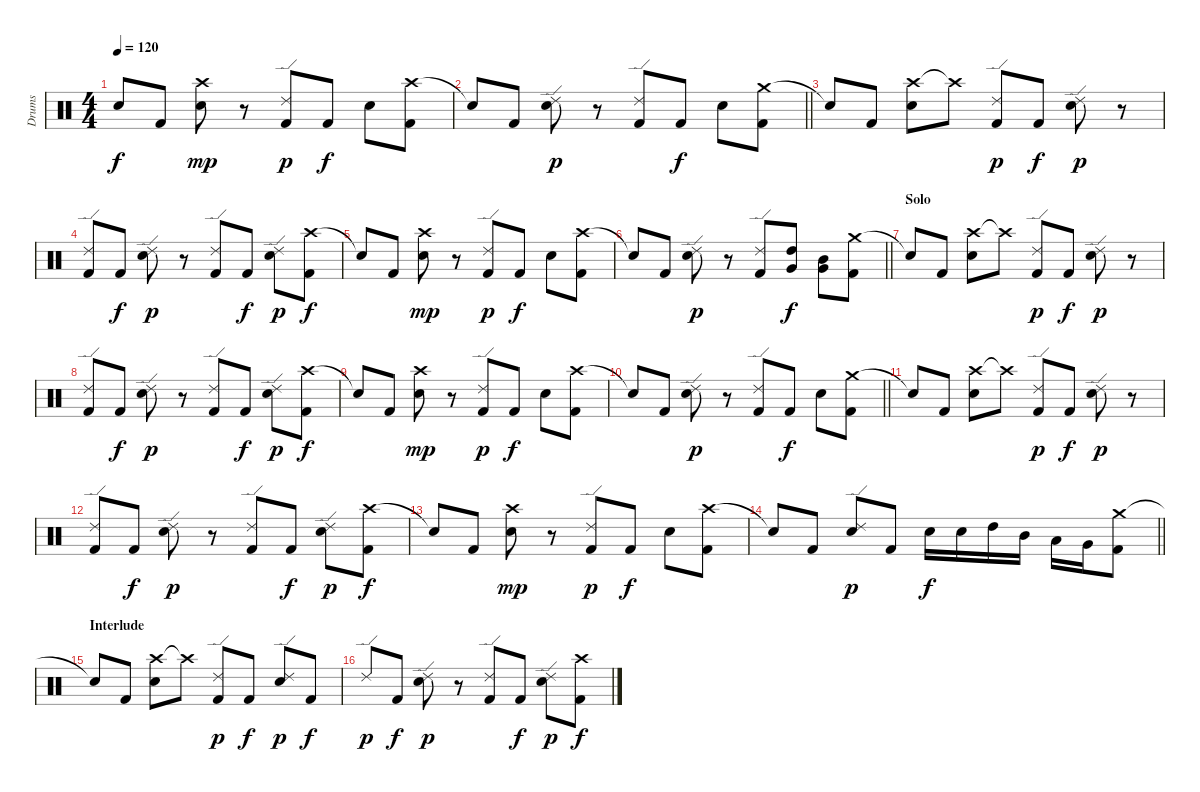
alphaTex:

\track ("Drums" "Drums") {instrument percussion}
\staff {score}
\articulation defaults
\ts (4 4)
\tempo 120
\clef neutral
\ks c "Snare (hit)"{t}.8{dy f} "Kick (hit) 2".8
("Crash high (hit)" "Electric Snare (hit)").8{dy mp} r.8 ("Ride (edge) 2" "Kick (hit) 2").8{dy p} "Kick (hit) 2".8{dy f} "Electric Snare (hit)".8 ("Crash high (hit)" "Kick (hit) 2").8 |
\barLineRight lightlight "Snare (hit)"{t}.8 "Kick (hit) 2".8
("Ride (edge) 2" "Electric Snare (hit)").8{dy p} r.8 ("Ride (edge) 2" "Kick (hit) 2").8 "Kick (hit) 2".8{dy f} "Electric Snare (hit)".8 ("Crash medium (hit)" "Kick (hit) 2").8 |
"Snare (hit)"{t}.8 "Kick (hit) 2".8 ("Crash high (hit)" "Electric Snare (hit)").8 "Crash high (hit)"{t}.8 ("Ride (edge) 2" "Kick (hit) 2").8{dy p} "Kick (hit) 2".8{dy f} ("Ride (edge) 2" "Electric Snare (hit)").8{dy p} r.8 |
("Ride (edge) 2" "Kick (hit) 2").8 "Kick (hit) 2".8{dy f} ("Ride (edge) 2" "Electric Snare (hit)").8{dy p} r.8 ("Ride (edge) 2" "Kick (hit) 2").8 "Kick (hit) 2".8{dy f} ("Ride (edge) 2" "Electric Snare (hit)").8{dy p} ("Crash high (hit)" "Kick (hit) 2").8{dy f} |
"Snare (hit)"{t}.8 "Kick (hit) 2".8 ("Crash high (hit)" "Electric Snare (hit)").8{dy mp} r.8 ("Ride (edge) 2" "Kick (hit) 2").8{dy p} "Kick (hit) 2".8{dy f} "Electric Snare (hit)".8 ("Crash high (hit)" "Kick (hit) 2").8 |
\barLineRight lightlight "Snare (hit)"{t}.8 "Kick (hit) 2".8
("Ride (edge) 2" "Electric Snare (hit)").8{dy p} r.8 ("Ride (edge) 2" "Kick (hit) 2").8 ("High Tom (hit)" "Very Low Tom (hit)").8{dy f} ("Mid Tom (hit)" "Very Low Tom (hit)").8 ("Crash medium (hit)" "Kick (hit) 2").8 |
\section ("" "Solo")
"Snare (hit)"{t}.8 "Kick (hit) 2".8 ("Crash high (hit)" "Electric Snare (hit)").8 "Crash high (hit)"{t}.8 ("Ride (edge) 2" "Kick (hit) 2").8{dy p} "Kick (hit) 2".8{dy f} ("Ride (edge) 2" "Electric Snare (hit)").8{dy p} r.8 |
("Ride (edge) 2" "Kick (hit) 2").8 "Kick (hit) 2".8{dy f} ("Ride (edge) 2" "Electric Snare (hit)").8{dy p} r.8 ("Ride (edge) 2" "Kick (hit) 2").8 "Kick (hit) 2".8{dy f} ("Ride (edge) 2" "Electric Snare (hit)").8{dy p} ("Crash high (hit)" "Kick (hit) 2").8{dy f} |
"Snare (hit)"{t}.8 "Kick (hit) 2".8 ("Crash high (hit)" "Electric Snare (hit)").8{dy mp} r.8 ("Ride (edge) 2" "Kick (hit) 2").8{dy p} "Kick (hit) 2".8{dy f} "Electric Snare (hit)".8 ("Crash high (hit)" "Kick (hit) 2").8 |
\barLineRight lightlight "Snare (hit)"{t}.8 "Kick (hit) 2".8
("Ride (edge) 2" "Electric Snare (hit)").8{dy p} r.8 ("Ride (edge) 2" "Kick (hit) 2").8 "Kick (hit) 2".8{dy f} "Electric Snare (hit)".8 ("Crash medium (hit)" "Kick (hit) 2").8 |
"Snare (hit)"{t}.8 "Kick (hit) 2".8 ("Crash high (hit)" "Electric Snare (hit)").8 "Crash high (hit)"{t}.8 ("Ride (edge) 2" "Kick (hit) 2").8{dy p} "Kick (hit) 2".8{dy f} ("Ride (edge) 2" "Electric Snare (hit)").8{dy p} r.8 |
("Ride (edge) 2" "Kick (hit) 2").8 "Kick (hit) 2".8{dy f} ("Ride (edge) 2" "Electric Snare (hit)").8{dy p} r.8 ("Ride (edge) 2" "Kick (hit) 2").8 "Kick (hit) 2".8{dy f} ("Ride (edge) 2" "Electric Snare (hit)").8{dy p} ("Crash high (hit)" "Kick (hit) 2").8{dy f} |
"Snare (hit)"{t}.8 "Kick (hit) 2".8 ("Crash high (hit)" "Electric Snare (hit)").8{dy mp} r.8 ("Ride (edge) 2" "Kick (hit) 2").8{dy p} "Kick (hit) 2".8{dy f} "Electric Snare (hit)".8 ("Crash high (hit)" "Kick (hit) 2").8 |
\barLineRight lightlight "Snare (hit)"{t}.8 "Kick (hit) 2".8
("Ride (edge) 2" "Electric Snare (hit)").8{dy p} "Kick (hit) 2".8 "Electric Snare (hit)".16{dy f} "Electric Snare (hit)".16 "High Tom (hit)".16 "Mid Tom (hit)".16 "Low Tom (hit)".16 "Very Low Tom (hit)".16 ("Crash medium (hit)" "Kick (hit) 2").8 |
\section ("" "Interlude")
"Snare (hit)"{t}.8 "Kick (hit) 2".8 ("Crash high (hit)" "Electric Snare (hit)").8 "Crash high (hit)"{t}.8 ("Ride (edge) 2" "Kick (hit) 2").8{dy p} "Kick (hit) 2".8{dy f} ("Ride (edge) 2" "Electric Snare (hit)").8{dy p} "Kick (hit) 2".8{dy f} |
"Ride (edge) 2".8{dy p} "Kick (hit) 2".8{dy f} ("Ride (edge) 2" "Electric Snare (hit)").8{dy p} r.8 ("Ride (edge) 2" "Kick (hit) 2").8 "Kick (hit) 2".8{dy f} ("Ride (edge) 2" "Electric Snare (hit)").8{dy p} ("Crash high (hit)" "Kick (hit) 2").8{dy f}
